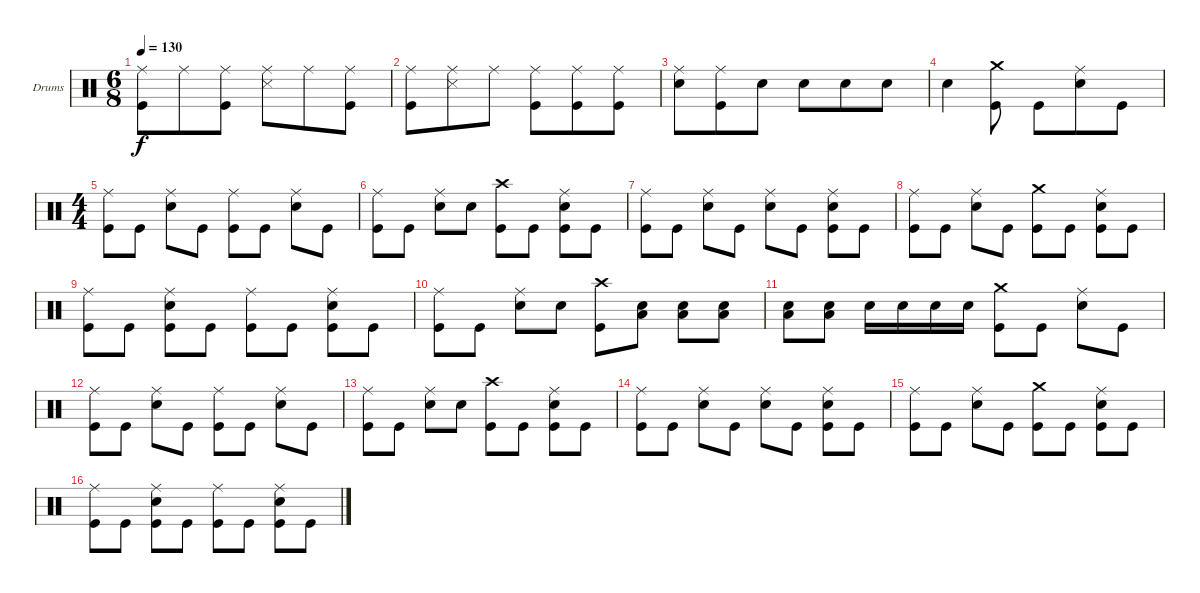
\bracketExtendMode groupsimilarinstruments
\firstSystemTrackNameOrientation horizontal
\otherSystemsTrackNameOrientation horizontal
\track ("Drumkit" "Drums") {instrument percussion}
\staff {score}
\articulation defaults
\ts (6 8)
\tempo 130
\clef neutral
\ks c
("Ride (middle)" "Kick (hit)").8{dy f} "Ride (middle)".8 ("Ride (middle)" "Kick (hit)").8 ("Snare (side stick) 3" "Ride (middle)").8 "Ride (middle)".8 ("Kick (hit)" "Ride (middle)").8 |
("Ride (middle)" "Kick (hit)").8 ("Snare (side stick) 3" "Ride (middle)").8 "Ride (middle)".8 ("Kick (hit)" "Ride (middle)").8 ("Kick (hit)" "Ride (middle)").8 ("Ride (middle)" "Kick (hit)").8 |
("Ride (middle)" "Snare (hit) 2").8 ("Kick (hit)" "Ride (middle)").8 "Snare (hit) 2".8 "Snare (hit) 2".8 "Snare (hit) 2".8 "Snare (hit) 2".8 |
"Snare (hit) 2".4 ("Crash medium (hit)" "Kick (hit)").8 "Kick (hit)".8 ("Ride (middle)" "Snare (hit) 2").8 "Kick (hit)".8 |
\ts (4 4)
("Ride (middle)" "Kick (hit)").8 "Kick (hit)".8 ("Ride (middle)" "Snare (hit) 2").8 "Kick (hit)".8 ("Kick (hit)" "Ride (middle)").8 "Kick (hit)".8 ("Ride (middle)" "Snare (hit) 2").8 "Kick (hit)".8 |
("Kick (hit)" "Ride (middle)").8 "Kick (hit)".8 ("Snare (hit) 2" "Ride (middle)").8 "Snare (hit) 2".8 ("Crash high (hit)" "Kick (hit)").8 "Kick (hit)".8 ("Ride (middle)" "Kick (hit)" "Snare (hit) 2").8 "Kick (hit)".8 |
("Kick (hit)" "Ride (middle)").8 "Kick (hit)".8 ("Ride (middle)" "Snare (hit) 2").8 "Kick (hit)".8 ("Ride (middle)" "Snare (hit) 2").8 "Kick (hit)".8 ("Ride (middle)" "Snare (hit) 2" "Kick (hit)").8 "Kick (hit)".8 |
("Ride (middle)" "Kick (hit)").8 "Kick (hit)".8 ("Ride (middle)" "Snare (hit) 2").8 "Kick (hit)".8 ("Kick (hit)" "Crash medium (hit)").8 "Kick (hit)".8 ("Ride (middle)" "Kick (hit)" "Snare (hit) 2").8 "Kick (hit)".8 |
("Ride (middle)" "Kick (hit)").8 "Kick (hit)".8 ("Kick (hit)" "Snare (hit) 2" "Ride (middle)").8 "Kick (hit)".8 ("Ride (middle)" "Kick (hit)").8 "Kick (hit)".8 ("Kick (hit)" "Snare (hit) 2" "Ride (middle)").8 "Kick (hit)".8 |
("Kick (hit)" "Ride (middle)").8 "Kick (hit)".8 ("Ride (middle)" "Snare (hit) 2").8 "Snare (hit) 2".8 ("Kick (hit)" "Crash high (hit)").8 ("Snare (hit) 2" "Low Tom (hit)").8 ("Low Tom (hit)" "Snare (hit) 2").8 ("Snare (hit) 2" "Low Tom (hit)").8 |
("Snare (hit) 2" "Low Tom (hit)").8 ("Low Tom (hit)" "Snare (hit) 2").8 "Snare (hit) 2".16 "Snare (hit) 2".16 "Snare (hit) 2".16 "Snare (hit) 2".16 ("Crash medium (hit)" "Kick (hit)").8 "Kick (hit)".8 ("Ride (middle)" "Snare (hit) 2").8 "Kick (hit)".8 |
("Ride (middle)" "Kick (hit)").8 "Kick (hit)".8 ("Ride (middle)" "Snare (hit) 2").8 "Kick (hit)".8 ("Kick (hit)" "Ride (middle)").8 "Kick (hit)".8 ("Ride (middle)" "Snare (hit) 2").8 "Kick (hit)".8 |
("Kick (hit)" "Ride (middle)").8 "Kick (hit)".8 ("Snare (hit) 2" "Ride (middle)").8 "Snare (hit) 2".8 ("Crash high (hit)" "Kick (hit)").8 "Kick (hit)".8 ("Ride (middle)" "Kick (hit)" "Snare (hit) 2").8 "Kick (hit)".8 |
("Kick (hit)" "Ride (middle)").8 "Kick (hit)".8 ("Ride (middle)" "Snare (hit) 2").8 "Kick (hit)".8 ("Ride (middle)" "Snare (hit) 2").8 "Kick (hit)".8 ("Ride (middle)" "Snare (hit) 2" "Kick (hit)").8 "Kick (hit)".8 |
("Ride (middle)" "Kick (hit)").8 "Kick (hit)".8 ("Ride (middle)" "Snare (hit) 2").8 "Kick (hit)".8 ("Kick (hit)" "Crash medium (hit)").8 "Kick (hit)".8 ("Ride (middle)" "Kick (hit)" "Snare (hit) 2").8 "Kick (hit)".8 |
("Ride (middle)" "Kick (hit)").8 "Kick (hit)".8 ("Kick (hit)" "Snare (hit) 2" "Ride (middle)").8 "Kick (hit)".8 ("Ride (middle)" "Kick (hit)").8 "Kick (hit)".8 ("Kick (hit)" "Snare (hit) 2" "Ride (middle)").8 "Kick (hit)".8
